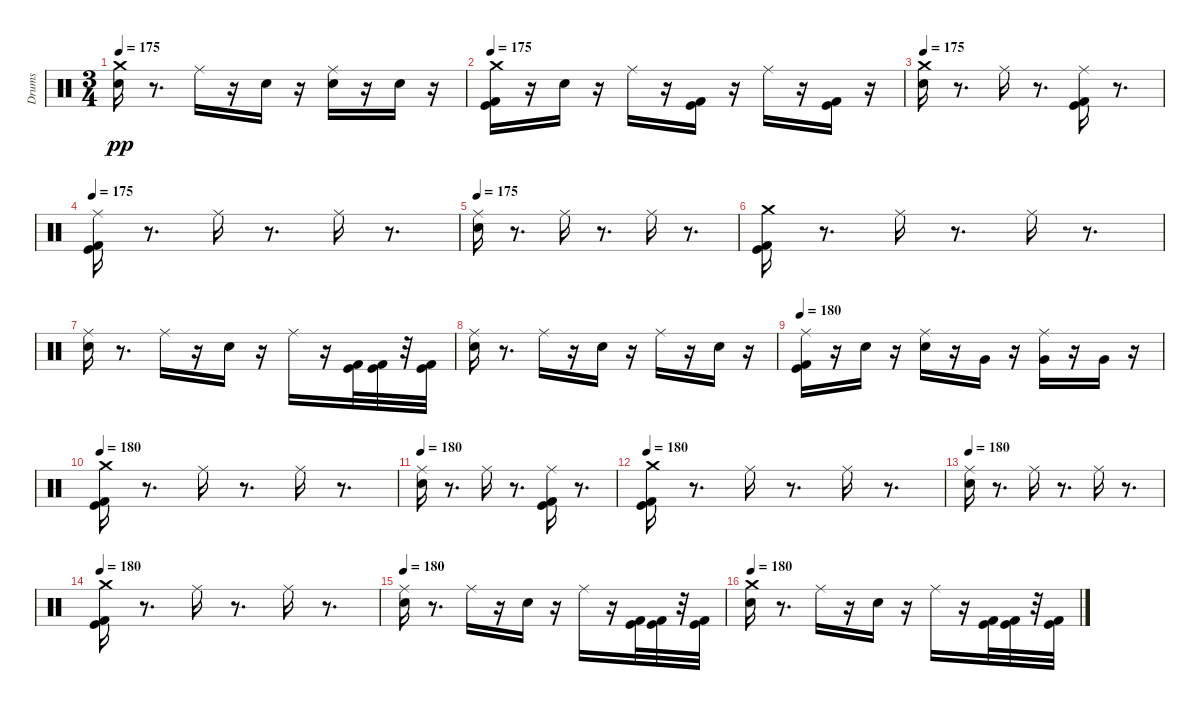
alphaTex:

\track ("Drums" "Drums") {instrument percussion}
\staff {score}
\articulation defaults
\ts (3 4)
\tempo 175
\clef neutral
\ks c
("Crash medium (hit)" "Snare (hit) 2").16{dy pp} r.8{d} "Ride (middle)".16 r.16 "Snare (hit) 2".16 r.16 ("Snare (hit) 2" "Ride (middle)").16 r.16 "Snare (hit) 2".16 r.16 |
\tempo 175
("Crash medium (hit)" "Kick (hit) 2" "Kick (hit)").16 r.16 "Snare (hit) 2".16 r.16 "Ride (middle)".16 r.16 ("Kick (hit) 2" "Kick (hit)").16 r.16 "Ride (middle)".16 r.16 ("Kick (hit) 2" "Kick (hit)").16 r.16 |
\tempo 175
("Crash medium (hit)" "Snare (hit) 2").16 r.8{d} "Ride (middle)".16 r.8{d} ("Ride (middle)" "Kick (hit) 2" "Kick (hit)").16 r.8{d} |
\tempo 175
("Ride (middle)" "Kick (hit) 2" "Kick (hit)").16 r.8{d} "Ride (middle)".16 r.8{d} "Ride (middle)".16 r.8{d} |
\tempo 175
("Ride (middle)" "Snare (hit) 2").16 r.8{d} "Ride (middle)".16 r.8{d} "Ride (middle)".16 r.8{d} |
("Crash medium (hit)" "Kick (hit) 2" "Kick (hit)").16 r.8{d} "Ride (middle)".16 r.8{d} "Ride (middle)".16 r.8{d} |
("Ride (middle)" "Snare (hit) 2").16 r.8{d} "Ride (middle)".16 r.16 "Snare (hit) 2".16 r.16 "Ride (middle)".16 r.16 ("Kick (hit) 2" "Kick (hit)").32 ("Kick (hit) 2" "Kick (hit)").32 r.32 ("Kick (hit) 2" "Kick (hit)").32 |
("Snare (hit) 2" "Ride (middle)").16 r.8{d} "Ride (middle)".16 r.16 "Snare (hit) 2".16 r.16 "Ride (middle)".16 r.16 "Snare (hit) 2".16 r.16 |
\tempo 180
("Kick (hit) 2" "Kick (hit)" "Ride (middle)").16 r.16 "Snare (hit) 2".16 r.16 ("Snare (hit) 2" "Ride (middle)").16 r.16 "Very Low Tom (hit)".16 r.16 ("Very Low Tom (hit)" "Ride (middle)").16 r.16 "Very Low Tom (hit)".16 r.16 |
\tempo 180
("Crash medium (hit)" "Kick (hit) 2" "Kick (hit)").16 r.8{d} "Ride (middle)".16 r.8{d} "Ride (middle)".16 r.8{d} |
\tempo 180
("Ride (middle)" "Snare (hit) 2").16 r.8{d} "Ride (middle)".16 r.8{d} ("Ride (middle)" "Kick (hit) 2" "Kick (hit)").16 r.8{d} |
\tempo 180
("Crash medium (hit)" "Kick (hit) 2" "Kick (hit)").16 r.8{d} "Ride (middle)".16 r.8{d} "Ride (middle)".16 r.8{d} |
\tempo 180
("Ride (middle)" "Snare (hit) 2").16 r.8{d} "Ride (middle)".16 r.8{d} "Ride (middle)".16 r.8{d} |
\tempo 180
("Crash medium (hit)" "Kick (hit) 2" "Kick (hit)").16 r.8{d} "Ride (middle)".16 r.8{d} "Ride (middle)".16 r.8{d} |
\tempo 180
("Ride (middle)" "Snare (hit) 2").16 r.8{d} "Ride (middle)".16 r.16 "Snare (hit) 2".16 r.16 "Ride (middle)".16 r.16 ("Kick (hit) 2" "Kick (hit)").32 ("Kick (hit) 2" "Kick (hit)").32 r.32 ("Kick (hit) 2" "Kick (hit)").32 |
\tempo 180
("Crash medium (hit)" "Snare (hit) 2").16 r.8{d} "Ride (middle)".16 r.16 "Snare (hit) 2".16 r.16 "Ride (middle)".16 r.16 ("Kick (hit) 2" "Kick (hit)").32 ("Kick (hit) 2" "Kick (hit)").32 r.32 ("Kick (hit) 2" "Kick (hit)").32
